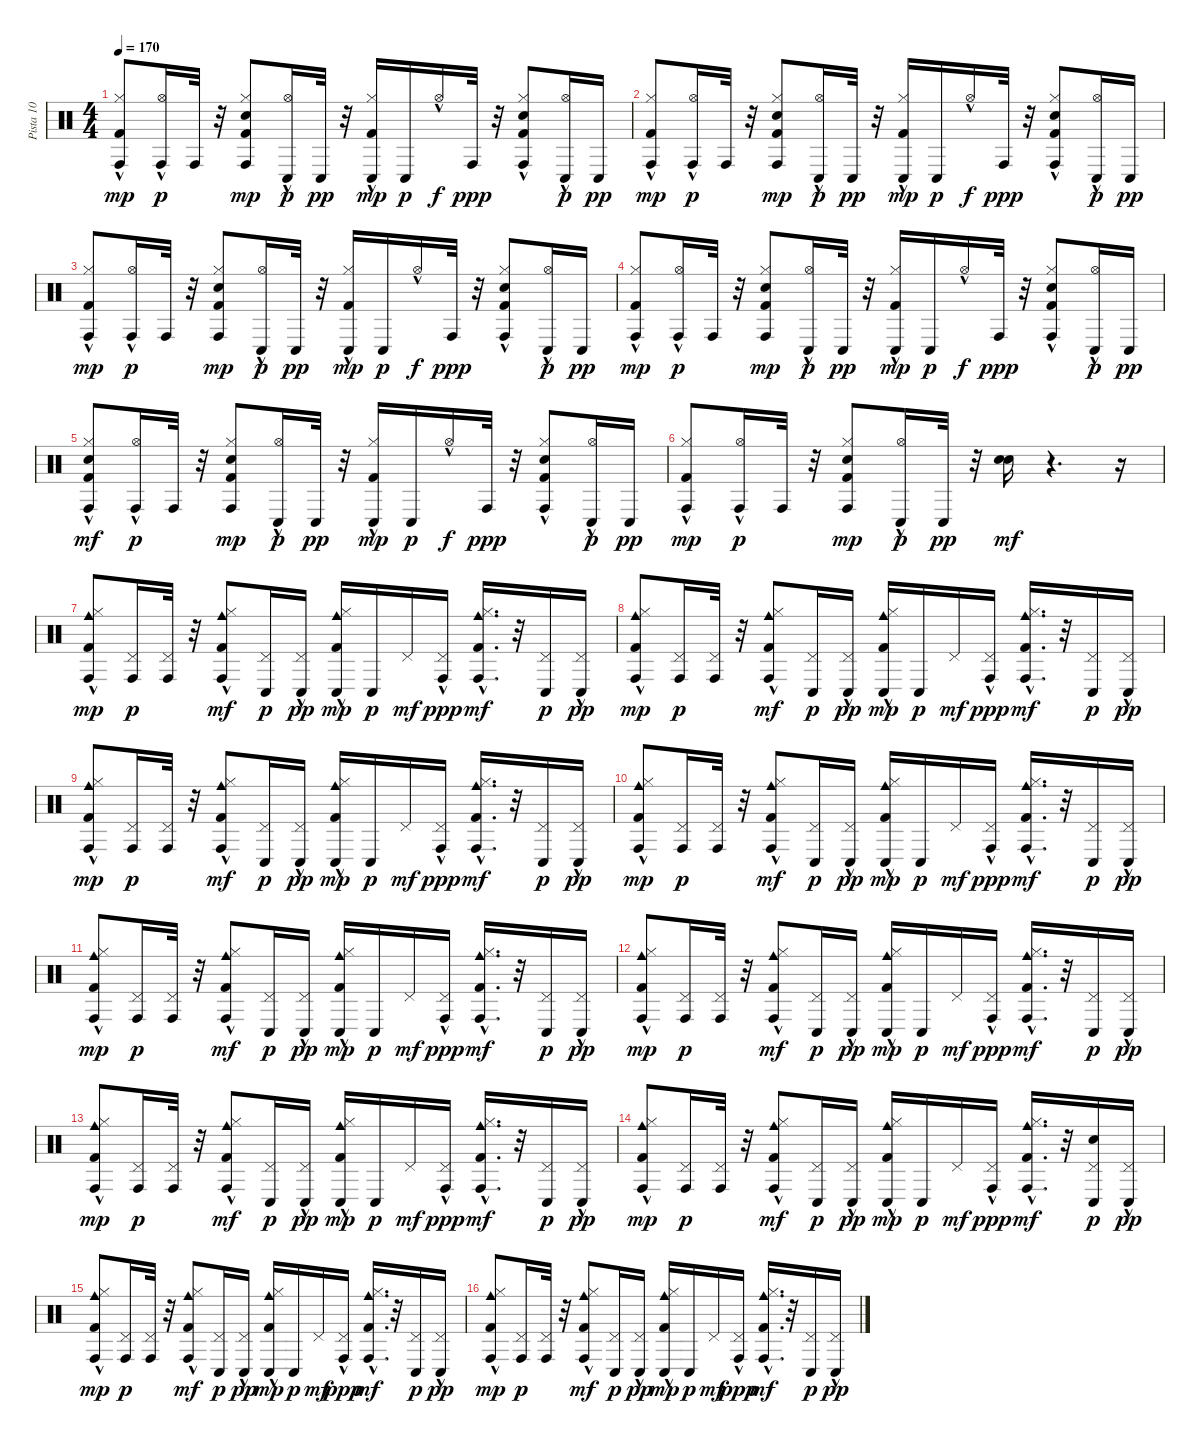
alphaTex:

\track ("Pista 10" "Pista 10") {instrument percussion}
\staff {score}
\articulation defaults
\ts (4 4)
\tempo 170
\clef neutral
\ks c
("Kick (hit) 2" "Hi-Hat (closed)"{hac} "Conga high (hit)").8{dy mp} ("Hi-Hat (open)"{hac} "Conga high (hit)").16{dy p} "Conga high (hit)".32 r.32 ("Kick (hit) 2" "Electric Snare (hit)" "Hi-Hat (closed)" "Conga high (hit)").8{dy mp} ("Hi-Hat (open)"{hac} "Conga low (hit)").16{dy p} "Conga low (hit)".32{dy pp} r.32 ("Kick (hit) 2" "Hi-Hat (closed)"{hac} "Conga low (hit)").16{dy mp} "Conga low (hit)".16{dy p} "Hi-Hat (open)"{hac}.16{dy f} "Conga high (hit)".32{dy ppp} r.32 ("Kick (hit) 2" "Electric Snare (hit)" "Hi-Hat (closed)"{hac} "Conga high (hit)").8 ("Hi-Hat (open)"{hac} "Conga low (hit)").16{dy p} "Conga low (hit)".16{dy pp} |
("Kick (hit) 2" "Hi-Hat (closed)"{hac} "Conga high (hit)").8{dy mp} ("Hi-Hat (open)"{hac} "Conga high (hit)").16{dy p} "Conga high (hit)".32 r.32 ("Kick (hit) 2" "Electric Snare (hit)" "Hi-Hat (closed)" "Conga high (hit)").8{dy mp} ("Hi-Hat (open)"{hac} "Conga low (hit)").16{dy p} "Conga low (hit)".32{dy pp} r.32 ("Kick (hit) 2" "Hi-Hat (closed)"{hac} "Conga low (hit)").16{dy mp} "Conga low (hit)".16{dy p} "Hi-Hat (open)"{hac}.16{dy f} "Conga high (hit)".32{dy ppp} r.32 ("Kick (hit) 2" "Electric Snare (hit)" "Hi-Hat (closed)"{hac} "Conga high (hit)").8 ("Hi-Hat (open)"{hac} "Conga low (hit)").16{dy p} "Conga low (hit)".16{dy pp} |
("Kick (hit) 2" "Hi-Hat (closed)"{hac} "Conga high (hit)").8{dy mp} ("Hi-Hat (open)"{hac} "Conga high (hit)").16{dy p} "Conga high (hit)".32 r.32 ("Kick (hit) 2" "Electric Snare (hit)" "Hi-Hat (closed)" "Conga high (hit)").8{dy mp} ("Hi-Hat (open)"{hac} "Conga low (hit)").16{dy p} "Conga low (hit)".32{dy pp} r.32 ("Kick (hit) 2" "Hi-Hat (closed)"{hac} "Conga low (hit)").16{dy mp} "Conga low (hit)".16{dy p} "Hi-Hat (open)"{hac}.16{dy f} "Conga high (hit)".32{dy ppp} r.32 ("Kick (hit) 2" "Electric Snare (hit)" "Hi-Hat (closed)"{hac} "Conga high (hit)").8 ("Hi-Hat (open)"{hac} "Conga low (hit)").16{dy p} "Conga low (hit)".16{dy pp} |
("Kick (hit) 2" "Hi-Hat (closed)"{hac} "Conga high (hit)").8{dy mp} ("Hi-Hat (open)"{hac} "Conga high (hit)").16{dy p} "Conga high (hit)".32 r.32 ("Kick (hit) 2" "Electric Snare (hit)" "Hi-Hat (closed)" "Conga high (hit)").8{dy mp} ("Hi-Hat (open)"{hac} "Conga low (hit)").16{dy p} "Conga low (hit)".32{dy pp} r.32 ("Kick (hit) 2" "Hi-Hat (closed)"{hac} "Conga low (hit)").16{dy mp} "Conga low (hit)".16{dy p} "Hi-Hat (open)"{hac}.16{dy f} "Conga high (hit)".32{dy ppp} r.32 ("Kick (hit) 2" "Electric Snare (hit)" "Hi-Hat (closed)"{hac} "Conga high (hit)").8 ("Hi-Hat (open)"{hac} "Conga low (hit)").16{dy p} "Conga low (hit)".16{dy pp} |
("Kick (hit) 2" "Hi-Hat (closed)"{hac} "Conga high (hit)" "Snare (hit) 2").8{dy mf} ("Hi-Hat (open)"{hac} "Conga high (hit)").16{dy p} "Conga high (hit)".32 r.32 ("Kick (hit) 2" "Electric Snare (hit)" "Hi-Hat (closed)" "Conga high (hit)").8{dy mp} ("Hi-Hat (open)"{hac} "Conga low (hit)").16{dy p} "Conga low (hit)".32{dy pp} r.32 ("Kick (hit) 2" "Hi-Hat (closed)"{hac} "Conga low (hit)").16{dy mp} "Conga low (hit)".16{dy p} "Hi-Hat (open)"{hac}.16{dy f} "Conga high (hit)".32{dy ppp} r.32 ("Kick (hit) 2" "Electric Snare (hit)" "Hi-Hat (closed)"{hac} "Conga high (hit)").8 ("Hi-Hat (open)"{hac} "Conga low (hit)").16{dy p} "Conga low (hit)".16{dy pp} |
("Kick (hit) 2" "Hi-Hat (closed)"{hac} "Conga high (hit)").8{dy mp} ("Hi-Hat (open)"{hac} "Conga high (hit)").16{dy p} "Conga high (hit)".32 r.32 ("Kick (hit) 2" "Electric Snare (hit)" "Hi-Hat (closed)" "Conga high (hit)").8{dy mp} ("Hi-Hat (open)"{hac} "Conga low (hit)").16{dy p} "Conga low (hit)".32{dy pp} r.32 ("Snare (hit) 2" "Electric Snare (hit)").16{dy mf} r.4{d} r.16 |
("Kick (hit) 2" "Hi-Hat (closed)"{hac} "Conga high (hit)" "Cowbell medium (hit)"{hac}).8{dy mp} ("Pedal Hi-Hat (hit)" "Conga high (hit)").16{dy p} ("Pedal Hi-Hat (hit)" "Conga high (hit)").32 r.32 ("Kick (hit) 2" "Hi-Hat (closed)" "Conga high (hit)" "Cowbell medium (hit)"{hac}).8{dy mf} ("Pedal Hi-Hat (hit)" "Conga low (hit)").16{dy p} ("Pedal Hi-Hat (hit)"{hac} "Conga low (hit)").16{dy pp} ("Kick (hit) 2" "Hi-Hat (closed)"{hac} "Conga low (hit)" "Cowbell medium (hit)"{hac}).16{dy mp} "Conga low (hit)".16{dy p} "Pedal Hi-Hat (hit)".16{dy mf} ("Pedal Hi-Hat (hit)"{hac} "Conga high (hit)").16{dy ppp} ("Kick (hit) 2" "Hi-Hat (closed)"{hac} "Conga high (hit)" "Cowbell medium (hit)"{hac}).16{d dy mf} r.32 ("Pedal Hi-Hat (hit)" "Conga low (hit)").16{dy p} ("Pedal Hi-Hat (hit)"{hac} "Conga low (hit)").16{dy pp} |
("Kick (hit) 2" "Hi-Hat (closed)"{hac} "Conga high (hit)" "Cowbell medium (hit)"{hac}).8{dy mp} ("Pedal Hi-Hat (hit)" "Conga high (hit)").16{dy p} ("Pedal Hi-Hat (hit)" "Conga high (hit)").32 r.32 ("Kick (hit) 2" "Hi-Hat (closed)" "Conga high (hit)" "Cowbell medium (hit)"{hac}).8{dy mf} ("Pedal Hi-Hat (hit)" "Conga low (hit)").16{dy p} ("Pedal Hi-Hat (hit)"{hac} "Conga low (hit)").16{dy pp} ("Kick (hit) 2" "Hi-Hat (closed)"{hac} "Conga low (hit)" "Cowbell medium (hit)"{hac}).16{dy mp} "Conga low (hit)".16{dy p} "Pedal Hi-Hat (hit)".16{dy mf} ("Pedal Hi-Hat (hit)"{hac} "Conga high (hit)").16{dy ppp} ("Kick (hit) 2" "Hi-Hat (closed)"{hac} "Conga high (hit)" "Cowbell medium (hit)"{hac}).16{d dy mf} r.32 ("Pedal Hi-Hat (hit)" "Conga low (hit)").16{dy p} ("Pedal Hi-Hat (hit)"{hac} "Conga low (hit)").16{dy pp} |
("Kick (hit) 2" "Hi-Hat (closed)"{hac} "Conga high (hit)" "Cowbell medium (hit)"{hac}).8{dy mp} ("Pedal Hi-Hat (hit)" "Conga high (hit)").16{dy p} ("Pedal Hi-Hat (hit)" "Conga high (hit)").32 r.32 ("Kick (hit) 2" "Hi-Hat (closed)" "Conga high (hit)" "Cowbell medium (hit)"{hac}).8{dy mf} ("Pedal Hi-Hat (hit)" "Conga low (hit)").16{dy p} ("Pedal Hi-Hat (hit)"{hac} "Conga low (hit)").16{dy pp} ("Kick (hit) 2" "Hi-Hat (closed)"{hac} "Conga low (hit)" "Cowbell medium (hit)"{hac}).16{dy mp} "Conga low (hit)".16{dy p} "Pedal Hi-Hat (hit)".16{dy mf} ("Pedal Hi-Hat (hit)"{hac} "Conga high (hit)").16{dy ppp} ("Kick (hit) 2" "Hi-Hat (closed)"{hac} "Conga high (hit)" "Cowbell medium (hit)"{hac}).16{d dy mf} r.32 ("Pedal Hi-Hat (hit)" "Conga low (hit)").16{dy p} ("Pedal Hi-Hat (hit)"{hac} "Conga low (hit)").16{dy pp} |
("Kick (hit) 2" "Hi-Hat (closed)"{hac} "Conga high (hit)" "Cowbell medium (hit)"{hac}).8{dy mp} ("Pedal Hi-Hat (hit)" "Conga high (hit)").16{dy p} ("Pedal Hi-Hat (hit)" "Conga high (hit)").32 r.32 ("Kick (hit) 2" "Hi-Hat (closed)" "Conga high (hit)" "Cowbell medium (hit)"{hac}).8{dy mf} ("Pedal Hi-Hat (hit)" "Conga low (hit)").16{dy p} ("Pedal Hi-Hat (hit)"{hac} "Conga low (hit)").16{dy pp} ("Kick (hit) 2" "Hi-Hat (closed)"{hac} "Conga low (hit)" "Cowbell medium (hit)"{hac}).16{dy mp} "Conga low (hit)".16{dy p} "Pedal Hi-Hat (hit)".16{dy mf} ("Pedal Hi-Hat (hit)"{hac} "Conga high (hit)").16{dy ppp} ("Kick (hit) 2" "Hi-Hat (closed)"{hac} "Conga high (hit)" "Cowbell medium (hit)"{hac}).16{d dy mf} r.32 ("Pedal Hi-Hat (hit)" "Conga low (hit)").16{dy p} ("Pedal Hi-Hat (hit)"{hac} "Conga low (hit)").16{dy pp} |
("Kick (hit) 2" "Hi-Hat (closed)"{hac} "Conga high (hit)" "Cowbell medium (hit)"{hac}).8{dy mp} ("Pedal Hi-Hat (hit)" "Conga high (hit)").16{dy p} ("Pedal Hi-Hat (hit)" "Conga high (hit)").32 r.32 ("Kick (hit) 2" "Hi-Hat (closed)" "Conga high (hit)" "Cowbell medium (hit)"{hac}).8{dy mf} ("Pedal Hi-Hat (hit)" "Conga low (hit)").16{dy p} ("Pedal Hi-Hat (hit)"{hac} "Conga low (hit)").16{dy pp} ("Kick (hit) 2" "Hi-Hat (closed)"{hac} "Conga low (hit)" "Cowbell medium (hit)"{hac}).16{dy mp} "Conga low (hit)".16{dy p} "Pedal Hi-Hat (hit)".16{dy mf} ("Pedal Hi-Hat (hit)"{hac} "Conga high (hit)").16{dy ppp} ("Kick (hit) 2" "Hi-Hat (closed)"{hac} "Conga high (hit)" "Cowbell medium (hit)"{hac}).16{d dy mf} r.32 ("Pedal Hi-Hat (hit)" "Conga low (hit)").16{dy p} ("Pedal Hi-Hat (hit)"{hac} "Conga low (hit)").16{dy pp} |
("Kick (hit) 2" "Hi-Hat (closed)"{hac} "Conga high (hit)" "Cowbell medium (hit)"{hac}).8{dy mp} ("Pedal Hi-Hat (hit)" "Conga high (hit)").16{dy p} ("Pedal Hi-Hat (hit)" "Conga high (hit)").32 r.32 ("Kick (hit) 2" "Hi-Hat (closed)" "Conga high (hit)" "Cowbell medium (hit)"{hac}).8{dy mf} ("Pedal Hi-Hat (hit)" "Conga low (hit)").16{dy p} ("Pedal Hi-Hat (hit)"{hac} "Conga low (hit)").16{dy pp} ("Kick (hit) 2" "Hi-Hat (closed)"{hac} "Conga low (hit)" "Cowbell medium (hit)"{hac}).16{dy mp} "Conga low (hit)".16{dy p} "Pedal Hi-Hat (hit)".16{dy mf} ("Pedal Hi-Hat (hit)"{hac} "Conga high (hit)").16{dy ppp} ("Kick (hit) 2" "Hi-Hat (closed)"{hac} "Conga high (hit)" "Cowbell medium (hit)"{hac}).16{d dy mf} r.32 ("Pedal Hi-Hat (hit)" "Conga low (hit)").16{dy p} ("Pedal Hi-Hat (hit)"{hac} "Conga low (hit)").16{dy pp} |
("Kick (hit) 2" "Hi-Hat (closed)"{hac} "Conga high (hit)" "Cowbell medium (hit)"{hac}).8{dy mp} ("Pedal Hi-Hat (hit)" "Conga high (hit)").16{dy p} ("Pedal Hi-Hat (hit)" "Conga high (hit)").32 r.32 ("Kick (hit) 2" "Hi-Hat (closed)" "Conga high (hit)" "Cowbell medium (hit)"{hac}).8{dy mf} ("Pedal Hi-Hat (hit)" "Conga low (hit)").16{dy p} ("Pedal Hi-Hat (hit)"{hac} "Conga low (hit)").16{dy pp} ("Kick (hit) 2" "Hi-Hat (closed)"{hac} "Conga low (hit)" "Cowbell medium (hit)"{hac}).16{dy mp} "Conga low (hit)".16{dy p} "Pedal Hi-Hat (hit)".16{dy mf} ("Pedal Hi-Hat (hit)"{hac} "Conga high (hit)").16{dy ppp} ("Kick (hit) 2" "Hi-Hat (closed)"{hac} "Conga high (hit)" "Cowbell medium (hit)"{hac}).16{d dy mf} r.32 ("Pedal Hi-Hat (hit)" "Conga low (hit)").16{dy p} ("Pedal Hi-Hat (hit)"{hac} "Conga low (hit)").16{dy pp} |
("Kick (hit) 2" "Hi-Hat (closed)"{hac} "Conga high (hit)" "Cowbell medium (hit)"{hac}).8{dy mp} ("Pedal Hi-Hat (hit)" "Conga high (hit)").16{dy p} ("Pedal Hi-Hat (hit)" "Conga high (hit)").32 r.32 ("Kick (hit) 2" "Hi-Hat (closed)" "Conga high (hit)" "Cowbell medium (hit)"{hac}).8{dy mf} ("Pedal Hi-Hat (hit)" "Conga low (hit)").16{dy p} ("Pedal Hi-Hat (hit)"{hac} "Conga low (hit)").16{dy pp} ("Kick (hit) 2" "Hi-Hat (closed)"{hac} "Conga low (hit)" "Cowbell medium (hit)"{hac}).16{dy mp} "Conga low (hit)".16{dy p} "Pedal Hi-Hat (hit)".16{dy mf} ("Pedal Hi-Hat (hit)"{hac} "Conga high (hit)").16{dy ppp} ("Kick (hit) 2" "Hi-Hat (closed)"{hac} "Conga high (hit)" "Cowbell medium (hit)"{hac}).16{d dy mf} r.32 ("Pedal Hi-Hat (hit)" "Snare (hit) 2" "Conga low (hit)").16{dy p} ("Pedal Hi-Hat (hit)"{hac} "Conga low (hit)").16{dy pp} |
("Kick (hit) 2" "Hi-Hat (closed)"{hac} "Conga high (hit)" "Cowbell medium (hit)"{hac}).8{dy mp} ("Pedal Hi-Hat (hit)" "Conga high (hit)").16{dy p} ("Pedal Hi-Hat (hit)" "Conga high (hit)").32 r.32 ("Kick (hit) 2" "Hi-Hat (closed)" "Conga high (hit)" "Cowbell medium (hit)"{hac}).8{dy mf} ("Pedal Hi-Hat (hit)" "Conga low (hit)").16{dy p} ("Pedal Hi-Hat (hit)"{hac} "Conga low (hit)").16{dy pp} ("Kick (hit) 2" "Hi-Hat (closed)"{hac} "Conga low (hit)" "Cowbell medium (hit)"{hac}).16{dy mp} "Conga low (hit)".16{dy p} "Pedal Hi-Hat (hit)".16{dy mf} ("Pedal Hi-Hat (hit)"{hac} "Conga high (hit)").16{dy ppp} ("Kick (hit) 2" "Hi-Hat (closed)"{hac} "Conga high (hit)" "Cowbell medium (hit)"{hac}).16{d dy mf} r.32 ("Pedal Hi-Hat (hit)" "Conga low (hit)").16{dy p} ("Pedal Hi-Hat (hit)"{hac} "Conga low (hit)").16{dy pp} |
("Kick (hit) 2" "Hi-Hat (closed)"{hac} "Conga high (hit)" "Cowbell medium (hit)"{hac}).8{dy mp} ("Pedal Hi-Hat (hit)" "Conga high (hit)").16{dy p} ("Pedal Hi-Hat (hit)" "Conga high (hit)").32 r.32 ("Kick (hit) 2" "Hi-Hat (closed)" "Conga high (hit)" "Cowbell medium (hit)"{hac}).8{dy mf} ("Pedal Hi-Hat (hit)" "Conga low (hit)").16{dy p} ("Pedal Hi-Hat (hit)"{hac} "Conga low (hit)").16{dy pp} ("Kick (hit) 2" "Hi-Hat (closed)"{hac} "Conga low (hit)" "Cowbell medium (hit)"{hac}).16{dy mp} "Conga low (hit)".16{dy p} "Pedal Hi-Hat (hit)".16{dy mf} ("Pedal Hi-Hat (hit)"{hac} "Conga high (hit)").16{dy ppp} ("Kick (hit) 2" "Hi-Hat (closed)"{hac} "Conga high (hit)" "Cowbell medium (hit)"{hac}).16{d dy mf} r.32 ("Pedal Hi-Hat (hit)" "Conga low (hit)").16{dy p} ("Pedal Hi-Hat (hit)"{hac} "Conga low (hit)").16{dy pp}
